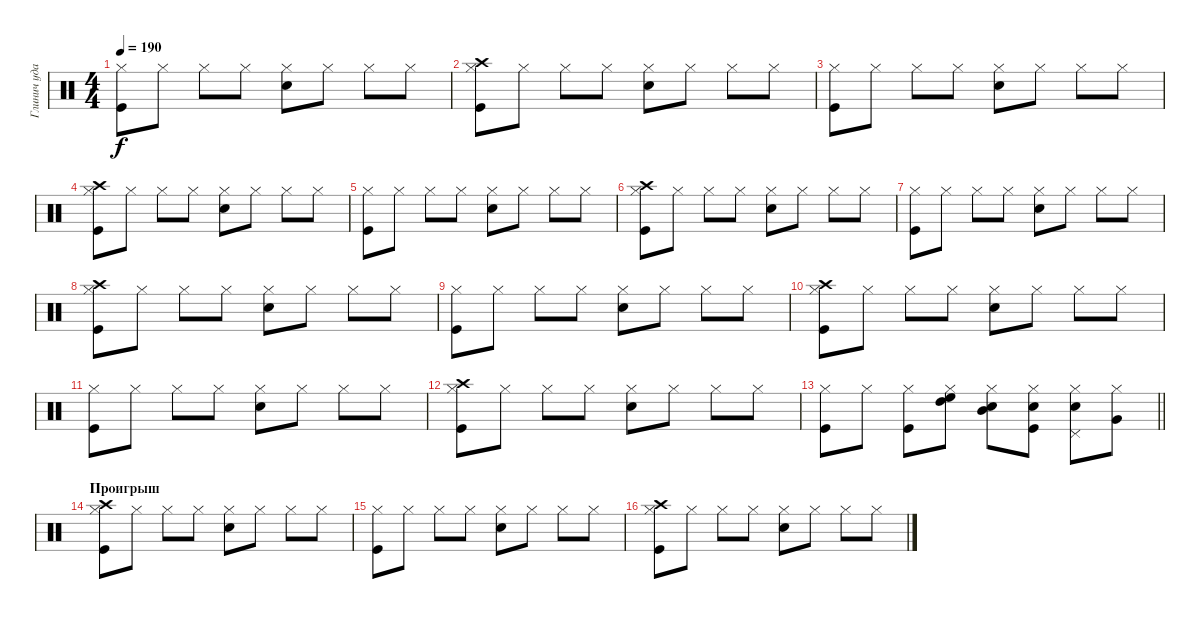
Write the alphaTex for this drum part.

\track ("Глинич ударные" "Глинич уда") {instrument percussion}
\staff {score}
\articulation defaults
\ts (4 4)
\tempo 190
\clef neutral
\ks c
("Hi-Hat (closed)" "Kick (hit)").8{dy f} "Hi-Hat (closed)".8 "Hi-Hat (closed)".8 "Hi-Hat (closed)".8 ("Hi-Hat (closed)" "Snare (hit) 2").8 "Hi-Hat (closed)".8 "Hi-Hat (closed)".8 "Hi-Hat (closed)".8 |
("Hi-Hat (closed)" "Kick (hit)" "Crash high (hit)").8 "Hi-Hat (closed)".8 "Hi-Hat (closed)".8 "Hi-Hat (closed)".8 ("Hi-Hat (closed)" "Snare (hit) 2").8 "Hi-Hat (closed)".8 "Hi-Hat (closed)".8 "Hi-Hat (closed)".8 |
("Hi-Hat (closed)" "Kick (hit)").8 "Hi-Hat (closed)".8 "Hi-Hat (closed)".8 "Hi-Hat (closed)".8 ("Hi-Hat (closed)" "Snare (hit) 2").8 "Hi-Hat (closed)".8 "Hi-Hat (closed)".8 "Hi-Hat (closed)".8 |
("Hi-Hat (closed)" "Kick (hit)" "Crash high (hit)").8 "Hi-Hat (closed)".8 "Hi-Hat (closed)".8 "Hi-Hat (closed)".8 ("Hi-Hat (closed)" "Snare (hit) 2").8 "Hi-Hat (closed)".8 "Hi-Hat (closed)".8 "Hi-Hat (closed)".8 |
("Hi-Hat (closed)" "Kick (hit)").8 "Hi-Hat (closed)".8 "Hi-Hat (closed)".8 "Hi-Hat (closed)".8 ("Hi-Hat (closed)" "Snare (hit) 2").8 "Hi-Hat (closed)".8 "Hi-Hat (closed)".8 "Hi-Hat (closed)".8 |
("Hi-Hat (closed)" "Kick (hit)" "Crash high (hit)").8 "Hi-Hat (closed)".8 "Hi-Hat (closed)".8 "Hi-Hat (closed)".8 ("Hi-Hat (closed)" "Snare (hit) 2").8 "Hi-Hat (closed)".8 "Hi-Hat (closed)".8 "Hi-Hat (closed)".8 |
("Hi-Hat (closed)" "Kick (hit)").8 "Hi-Hat (closed)".8 "Hi-Hat (closed)".8 "Hi-Hat (closed)".8 ("Hi-Hat (closed)" "Snare (hit) 2").8 "Hi-Hat (closed)".8 "Hi-Hat (closed)".8 "Hi-Hat (closed)".8 |
("Hi-Hat (closed)" "Kick (hit)" "Crash high (hit)").8 "Hi-Hat (closed)".8 "Hi-Hat (closed)".8 "Hi-Hat (closed)".8 ("Hi-Hat (closed)" "Snare (hit) 2").8 "Hi-Hat (closed)".8 "Hi-Hat (closed)".8 "Hi-Hat (closed)".8 |
("Hi-Hat (closed)" "Kick (hit)").8 "Hi-Hat (closed)".8 "Hi-Hat (closed)".8 "Hi-Hat (closed)".8 ("Hi-Hat (closed)" "Snare (hit) 2").8 "Hi-Hat (closed)".8 "Hi-Hat (closed)".8 "Hi-Hat (closed)".8 |
("Hi-Hat (closed)" "Kick (hit)" "Crash high (hit)").8 "Hi-Hat (closed)".8 "Hi-Hat (closed)".8 "Hi-Hat (closed)".8 ("Hi-Hat (closed)" "Snare (hit) 2").8 "Hi-Hat (closed)".8 "Hi-Hat (closed)".8 "Hi-Hat (closed)".8 |
("Hi-Hat (closed)" "Kick (hit)").8 "Hi-Hat (closed)".8 "Hi-Hat (closed)".8 "Hi-Hat (closed)".8 ("Hi-Hat (closed)" "Snare (hit) 2").8 "Hi-Hat (closed)".8 "Hi-Hat (closed)".8 "Hi-Hat (closed)".8 |
("Hi-Hat (closed)" "Kick (hit)" "Crash high (hit)").8 "Hi-Hat (closed)".8 "Hi-Hat (closed)".8 "Hi-Hat (closed)".8 ("Hi-Hat (closed)" "Snare (hit) 2").8 "Hi-Hat (closed)".8 "Hi-Hat (closed)".8 "Hi-Hat (closed)".8 |
\barLineRight lightlight
("Hi-Hat (closed)" "Kick (hit)").8 "Hi-Hat (closed)".8 ("Hi-Hat (closed)" "Kick (hit)").8 ("Hi-Hat (closed)" "High Tom (hit)" "High Floor Tom (hit)").8 ("Hi-Hat (closed)" "Mid Tom (hit)" "Snare (hit) 2").8 ("Hi-Hat (closed)" "Kick (hit)" "Snare (hit) 2").8 ("Hi-Hat (closed)" "Pedal Hi-Hat (hit)" "Snare (hit) 2").8 ("Hi-Hat (closed)" "Very Low Tom (hit)").8 |
\section ("" "Проигрыш")
("Hi-Hat (closed)" "Kick (hit)" "Crash high (hit)").8 "Hi-Hat (closed)".8 "Hi-Hat (closed)".8 "Hi-Hat (closed)".8 ("Hi-Hat (closed)" "Snare (hit) 2").8 "Hi-Hat (closed)".8 "Hi-Hat (closed)".8 "Hi-Hat (closed)".8 |
("Hi-Hat (closed)" "Kick (hit)").8 "Hi-Hat (closed)".8 "Hi-Hat (closed)".8 "Hi-Hat (closed)".8 ("Hi-Hat (closed)" "Snare (hit) 2").8 "Hi-Hat (closed)".8 "Hi-Hat (closed)".8 "Hi-Hat (closed)".8 |
("Hi-Hat (closed)" "Kick (hit)" "Crash high (hit)").8 "Hi-Hat (closed)".8 "Hi-Hat (closed)".8 "Hi-Hat (closed)".8 ("Hi-Hat (closed)" "Snare (hit) 2").8 "Hi-Hat (closed)".8 "Hi-Hat (closed)".8 "Hi-Hat (closed)".8
